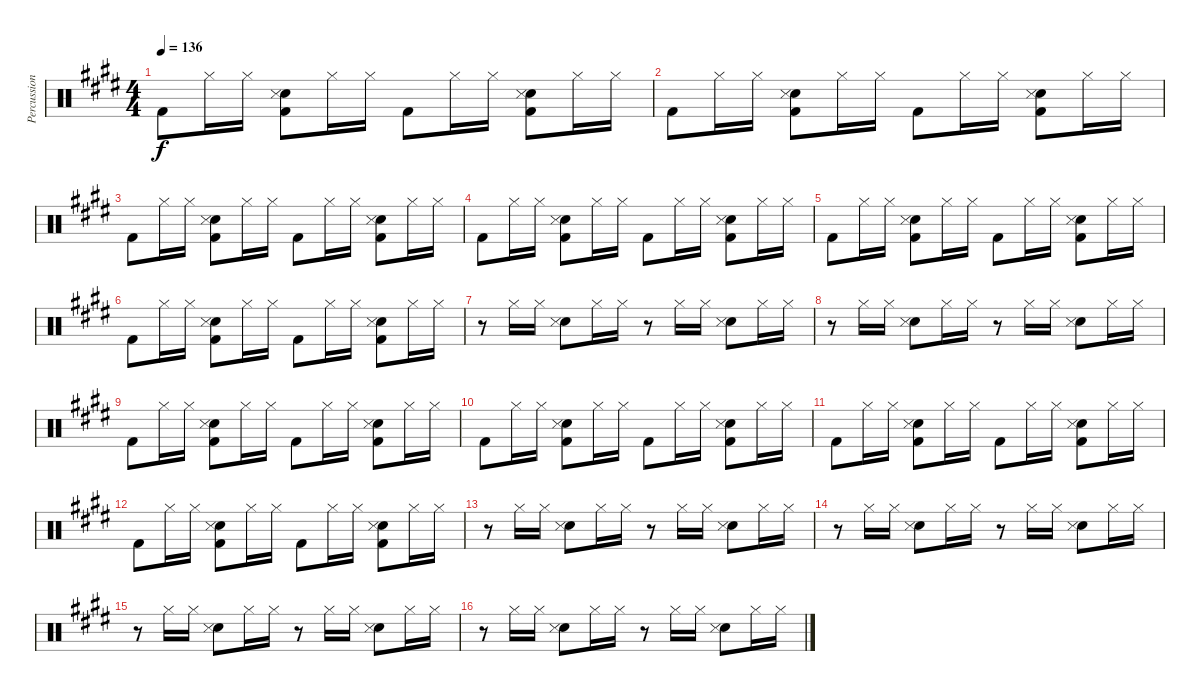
\track ("Percussion" "Percussion") {instrument percussion}
\staff {score}
\articulation defaults
\ts (4 4)
\tempo 136
\clef neutral
\ks e "Kick (hit) 2".8{dy f} "Hi-Hat (closed)".16 "Hi-Hat (closed)".16
("Hand Clap (hit)" "Snare (side stick) 3" "Kick (hit) 2").8 "Hi-Hat (closed)".16 "Hi-Hat (closed)".16 "Kick (hit) 2".8 "Hi-Hat (closed)".16 "Hi-Hat (closed)".16 ("Hand Clap (hit)" "Snare (side stick) 3" "Kick (hit) 2").8 "Hi-Hat (closed)".16 "Hi-Hat (closed)".16 |
"Kick (hit) 2".8 "Hi-Hat (closed)".16 "Hi-Hat (closed)".16 ("Hand Clap (hit)" "Snare (side stick) 3" "Kick (hit) 2").8 "Hi-Hat (closed)".16 "Hi-Hat (closed)".16 "Kick (hit) 2".8 "Hi-Hat (closed)".16 "Hi-Hat (closed)".16 ("Hand Clap (hit)" "Snare (side stick) 3" "Kick (hit) 2").8 "Hi-Hat (closed)".16 "Hi-Hat (closed)".16 |
"Kick (hit) 2".8 "Hi-Hat (closed)".16 "Hi-Hat (closed)".16 ("Hand Clap (hit)" "Snare (side stick) 3" "Kick (hit) 2").8 "Hi-Hat (closed)".16 "Hi-Hat (closed)".16 "Kick (hit) 2".8 "Hi-Hat (closed)".16 "Hi-Hat (closed)".16 ("Hand Clap (hit)" "Snare (side stick) 3" "Kick (hit) 2").8 "Hi-Hat (closed)".16 "Hi-Hat (closed)".16 |
"Kick (hit) 2".8 "Hi-Hat (closed)".16 "Hi-Hat (closed)".16 ("Hand Clap (hit)" "Snare (side stick) 3" "Kick (hit) 2").8 "Hi-Hat (closed)".16 "Hi-Hat (closed)".16 "Kick (hit) 2".8 "Hi-Hat (closed)".16 "Hi-Hat (closed)".16 ("Hand Clap (hit)" "Snare (side stick) 3" "Kick (hit) 2").8 "Hi-Hat (closed)".16 "Hi-Hat (closed)".16 |
"Kick (hit) 2".8 "Hi-Hat (closed)".16 "Hi-Hat (closed)".16 ("Hand Clap (hit)" "Snare (side stick) 3" "Kick (hit) 2").8 "Hi-Hat (closed)".16 "Hi-Hat (closed)".16 "Kick (hit) 2".8 "Hi-Hat (closed)".16 "Hi-Hat (closed)".16 ("Hand Clap (hit)" "Snare (side stick) 3" "Kick (hit) 2").8 "Hi-Hat (closed)".16 "Hi-Hat (closed)".16 |
"Kick (hit) 2".8 "Hi-Hat (closed)".16 "Hi-Hat (closed)".16 ("Hand Clap (hit)" "Snare (side stick) 3" "Kick (hit) 2").8 "Hi-Hat (closed)".16 "Hi-Hat (closed)".16 "Kick (hit) 2".8 "Hi-Hat (closed)".16 "Hi-Hat (closed)".16 ("Hand Clap (hit)" "Snare (side stick) 3" "Kick (hit) 2").8 "Hi-Hat (closed)".16 "Hi-Hat (closed)".16 |
r.8 "Hi-Hat (closed)".16 "Hi-Hat (closed)".16 ("Hand Clap (hit)" "Snare (side stick) 3").8 "Hi-Hat (closed)".16 "Hi-Hat (closed)".16 r.8 "Hi-Hat (closed)".16 "Hi-Hat (closed)".16 ("Hand Clap (hit)" "Snare (side stick) 3").8 "Hi-Hat (closed)".16 "Hi-Hat (closed)".16 |
r.8 "Hi-Hat (closed)".16 "Hi-Hat (closed)".16 ("Hand Clap (hit)" "Snare (side stick) 3").8 "Hi-Hat (closed)".16 "Hi-Hat (closed)".16 r.8 "Hi-Hat (closed)".16 "Hi-Hat (closed)".16 ("Hand Clap (hit)" "Snare (side stick) 3").8 "Hi-Hat (closed)".16 "Hi-Hat (closed)".16 |
"Kick (hit) 2".8 "Hi-Hat (closed)".16 "Hi-Hat (closed)".16 ("Hand Clap (hit)" "Snare (side stick) 3" "Kick (hit) 2").8 "Hi-Hat (closed)".16 "Hi-Hat (closed)".16 "Kick (hit) 2".8 "Hi-Hat (closed)".16 "Hi-Hat (closed)".16 ("Hand Clap (hit)" "Snare (side stick) 3" "Kick (hit) 2").8 "Hi-Hat (closed)".16 "Hi-Hat (closed)".16 |
"Kick (hit) 2".8 "Hi-Hat (closed)".16 "Hi-Hat (closed)".16 ("Hand Clap (hit)" "Snare (side stick) 3" "Kick (hit) 2").8 "Hi-Hat (closed)".16 "Hi-Hat (closed)".16 "Kick (hit) 2".8 "Hi-Hat (closed)".16 "Hi-Hat (closed)".16 ("Hand Clap (hit)" "Snare (side stick) 3" "Kick (hit) 2").8 "Hi-Hat (closed)".16 "Hi-Hat (closed)".16 |
"Kick (hit) 2".8 "Hi-Hat (closed)".16 "Hi-Hat (closed)".16 ("Hand Clap (hit)" "Snare (side stick) 3" "Kick (hit) 2").8 "Hi-Hat (closed)".16 "Hi-Hat (closed)".16 "Kick (hit) 2".8 "Hi-Hat (closed)".16 "Hi-Hat (closed)".16 ("Hand Clap (hit)" "Snare (side stick) 3" "Kick (hit) 2").8 "Hi-Hat (closed)".16 "Hi-Hat (closed)".16 |
"Kick (hit) 2".8 "Hi-Hat (closed)".16 "Hi-Hat (closed)".16 ("Hand Clap (hit)" "Snare (side stick) 3" "Kick (hit) 2").8 "Hi-Hat (closed)".16 "Hi-Hat (closed)".16 "Kick (hit) 2".8 "Hi-Hat (closed)".16 "Hi-Hat (closed)".16 ("Hand Clap (hit)" "Snare (side stick) 3" "Kick (hit) 2").8 "Hi-Hat (closed)".16 "Hi-Hat (closed)".16 |
r.8 "Hi-Hat (closed)".16 "Hi-Hat (closed)".16 ("Hand Clap (hit)" "Snare (side stick) 3").8 "Hi-Hat (closed)".16 "Hi-Hat (closed)".16 r.8 "Hi-Hat (closed)".16 "Hi-Hat (closed)".16 ("Hand Clap (hit)" "Snare (side stick) 3").8 "Hi-Hat (closed)".16 "Hi-Hat (closed)".16 |
r.8 "Hi-Hat (closed)".16 "Hi-Hat (closed)".16 ("Hand Clap (hit)" "Snare (side stick) 3").8 "Hi-Hat (closed)".16 "Hi-Hat (closed)".16 r.8 "Hi-Hat (closed)".16 "Hi-Hat (closed)".16 ("Hand Clap (hit)" "Snare (side stick) 3").8 "Hi-Hat (closed)".16 "Hi-Hat (closed)".16 |
r.8 "Hi-Hat (closed)".16 "Hi-Hat (closed)".16 ("Hand Clap (hit)" "Snare (side stick) 3").8 "Hi-Hat (closed)".16 "Hi-Hat (closed)".16 r.8 "Hi-Hat (closed)".16 "Hi-Hat (closed)".16 ("Hand Clap (hit)" "Snare (side stick) 3").8 "Hi-Hat (closed)".16 "Hi-Hat (closed)".16 |
r.8 "Hi-Hat (closed)".16 "Hi-Hat (closed)".16 ("Hand Clap (hit)" "Snare (side stick) 3").8 "Hi-Hat (closed)".16 "Hi-Hat (closed)".16 r.8 "Hi-Hat (closed)".16 "Hi-Hat (closed)".16 ("Hand Clap (hit)" "Snare (side stick) 3").8 "Hi-Hat (closed)".16 "Hi-Hat (closed)".16
